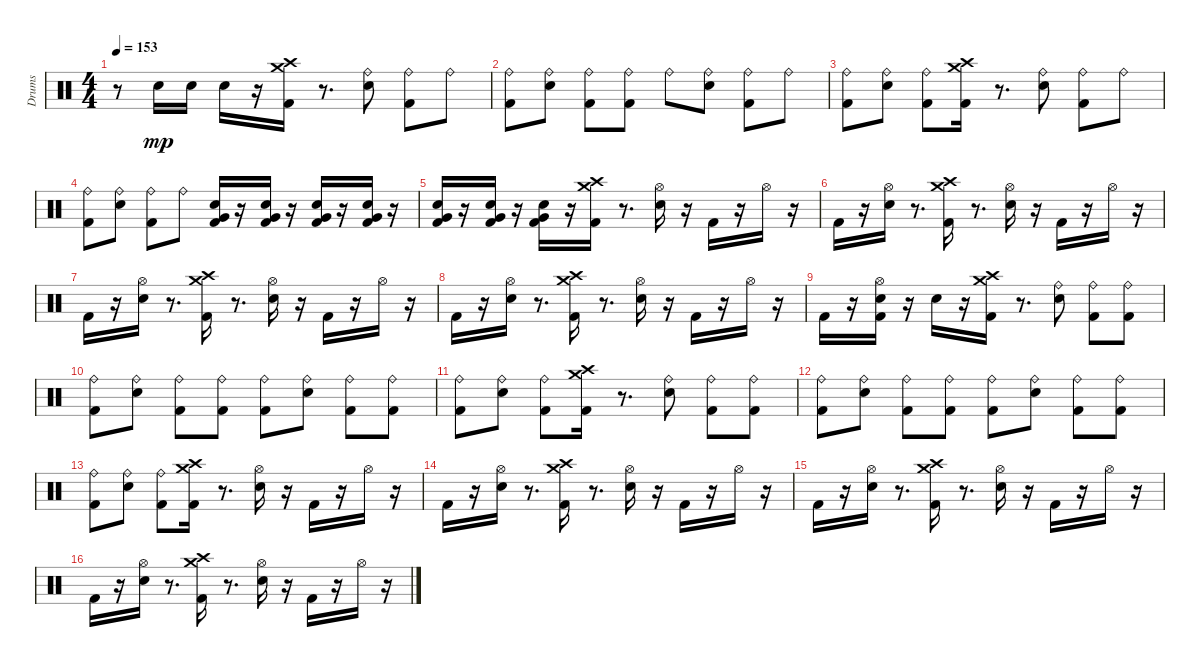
\track ("Drums" "Drums") {instrument percussion}
\staff {score}
\articulation defaults
\ts (4 4)
\tempo 153
\clef neutral
\ks c
r.8{dy mp} "Electric Snare (hit)".16 "Electric Snare (hit)".16 "Electric Snare (hit)".16 r.16 ("Crash medium (hit)" "Kick (hit) 2" "Crash high (hit)").16 r.8{d} ("Electric Snare (hit)" "Ride (bell)").8 ("Kick (hit) 2" "Ride (bell)").8 "Ride (bell)".8 |
("Kick (hit) 2" "Ride (bell)").8 ("Electric Snare (hit)" "Ride (bell)").8 ("Kick (hit) 2" "Ride (bell)").8 ("Kick (hit) 2" "Ride (bell)").8 "Ride (bell)".8 ("Electric Snare (hit)" "Ride (bell)").8 ("Kick (hit) 2" "Ride (bell)").8 "Ride (bell)".8 |
("Kick (hit) 2" "Ride (bell)").8 ("Electric Snare (hit)" "Ride (bell)").8 ("Kick (hit) 2" "Ride (bell)").8 ("Crash high (hit)" "Crash medium (hit)" "Kick (hit) 2").16 r.8{d} ("Electric Snare (hit)" "Ride (bell)").8 ("Kick (hit) 2" "Ride (bell)").8 "Ride (bell)".8 |
("Kick (hit) 2" "Ride (bell)").8 ("Electric Snare (hit)" "Ride (bell)").8 ("Kick (hit) 2" "Ride (bell)").8 "Ride (bell)".8 ("Kick (hit) 2" "Very Low Tom (hit)" "Electric Snare (hit)").16 r.16 ("Electric Snare (hit)" "Very Low Tom (hit)" "Kick (hit) 2").16 r.16 ("Kick (hit) 2" "Very Low Tom (hit)" "Electric Snare (hit)").16 r.16 ("Electric Snare (hit)" "Very Low Tom (hit)" "Kick (hit) 2").16 r.16 |
("Electric Snare (hit)" "Very Low Tom (hit)" "Kick (hit) 2").16 r.16 ("Kick (hit) 2" "Very Low Tom (hit)" "Electric Snare (hit)").16 r.16 ("Kick (hit) 2" "Very Low Tom (hit)" "Electric Snare (hit)").16 r.16 ("Crash high (hit)" "Kick (hit) 2" "Crash medium (hit)").16 r.8{d} ("Hi-Hat (open)" "Electric Snare (hit)").16 r.16 "Kick (hit) 2".16 r.16 "Hi-Hat (open)".16 r.16 |
"Kick (hit) 2".16 r.16 ("Hi-Hat (open)" "Electric Snare (hit)").16 r.8{d} ("Crash medium (hit)" "Crash high (hit)" "Kick (hit) 2").16 r.8{d} ("Hi-Hat (open)" "Electric Snare (hit)").16 r.16 "Kick (hit) 2".16 r.16 "Hi-Hat (open)".16 r.16 |
"Kick (hit) 2".16 r.16 ("Hi-Hat (open)" "Electric Snare (hit)").16 r.8{d} ("Crash medium (hit)" "Crash high (hit)" "Kick (hit) 2").16 r.8{d} ("Hi-Hat (open)" "Electric Snare (hit)").16 r.16 "Kick (hit) 2".16 r.16 "Hi-Hat (open)".16 r.16 |
"Kick (hit) 2".16 r.16 ("Hi-Hat (open)" "Electric Snare (hit)").16 r.8{d} ("Crash medium (hit)" "Crash high (hit)" "Kick (hit) 2").16 r.8{d} ("Hi-Hat (open)" "Electric Snare (hit)").16 r.16 "Kick (hit) 2".16 r.16 "Hi-Hat (open)".16 r.16 |
"Kick (hit) 2".16 r.16 ("Hi-Hat (open)" "Kick (hit) 2" "Electric Snare (hit)").16 r.16 "Electric Snare (hit)".16 r.16 ("Crash high (hit)" "Kick (hit) 2" "Crash medium (hit)").16 r.8{d} ("Electric Snare (hit)" "Ride (bell)").8 ("Kick (hit) 2" "Ride (bell)").8 ("Kick (hit) 2" "Ride (bell)").8 |
("Kick (hit) 2" "Ride (bell)").8 ("Electric Snare (hit)" "Ride (bell)").8 ("Kick (hit) 2" "Ride (bell)").8 ("Kick (hit) 2" "Ride (bell)").8 ("Kick (hit) 2" "Ride (bell)").8 ("Electric Snare (hit)" "Ride (bell)").8 ("Kick (hit) 2" "Ride (bell)").8 ("Kick (hit) 2" "Ride (bell)").8 |
("Kick (hit) 2" "Ride (bell)").8 ("Electric Snare (hit)" "Ride (bell)").8 ("Kick (hit) 2" "Ride (bell)").8 ("Crash medium (hit)" "Crash high (hit)" "Kick (hit) 2").16 r.8{d} ("Electric Snare (hit)" "Ride (bell)").8 ("Kick (hit) 2" "Ride (bell)").8 ("Kick (hit) 2" "Ride (bell)").8 |
("Kick (hit) 2" "Ride (bell)").8 ("Electric Snare (hit)" "Ride (bell)").8 ("Kick (hit) 2" "Ride (bell)").8 ("Kick (hit) 2" "Ride (bell)").8 ("Kick (hit) 2" "Ride (bell)").8 ("Electric Snare (hit)" "Ride (bell)").8 ("Kick (hit) 2" "Ride (bell)").8 ("Kick (hit) 2" "Ride (bell)").8 |
("Kick (hit) 2" "Ride (bell)").8 ("Electric Snare (hit)" "Ride (bell)").8 ("Kick (hit) 2" "Ride (bell)").8 ("Crash medium (hit)" "Kick (hit) 2" "Crash high (hit)").16 r.8{d} ("Electric Snare (hit)" "Hi-Hat (open)").16 r.16 "Kick (hit) 2".16 r.16 "Hi-Hat (open)".16 r.16 |
"Kick (hit) 2".16 r.16 ("Electric Snare (hit)" "Hi-Hat (open)").16 r.8{d} ("Crash medium (hit)" "Crash high (hit)" "Kick (hit) 2").16 r.8{d} ("Electric Snare (hit)" "Hi-Hat (open)").16 r.16 "Kick (hit) 2".16 r.16 "Hi-Hat (open)".16 r.16 |
"Kick (hit) 2".16 r.16 ("Electric Snare (hit)" "Hi-Hat (open)").16 r.8{d} ("Crash high (hit)" "Crash medium (hit)" "Kick (hit) 2").16 r.8{d} ("Electric Snare (hit)" "Hi-Hat (open)").16 r.16 "Kick (hit) 2".16 r.16 "Hi-Hat (open)".16 r.16 |
"Kick (hit) 2".16 r.16 ("Electric Snare (hit)" "Hi-Hat (open)").16 r.8{d} ("Crash medium (hit)" "Crash high (hit)" "Kick (hit) 2").16 r.8{d} ("Electric Snare (hit)" "Hi-Hat (open)").16 r.16 "Kick (hit) 2".16 r.16 "Hi-Hat (open)".16 r.16
